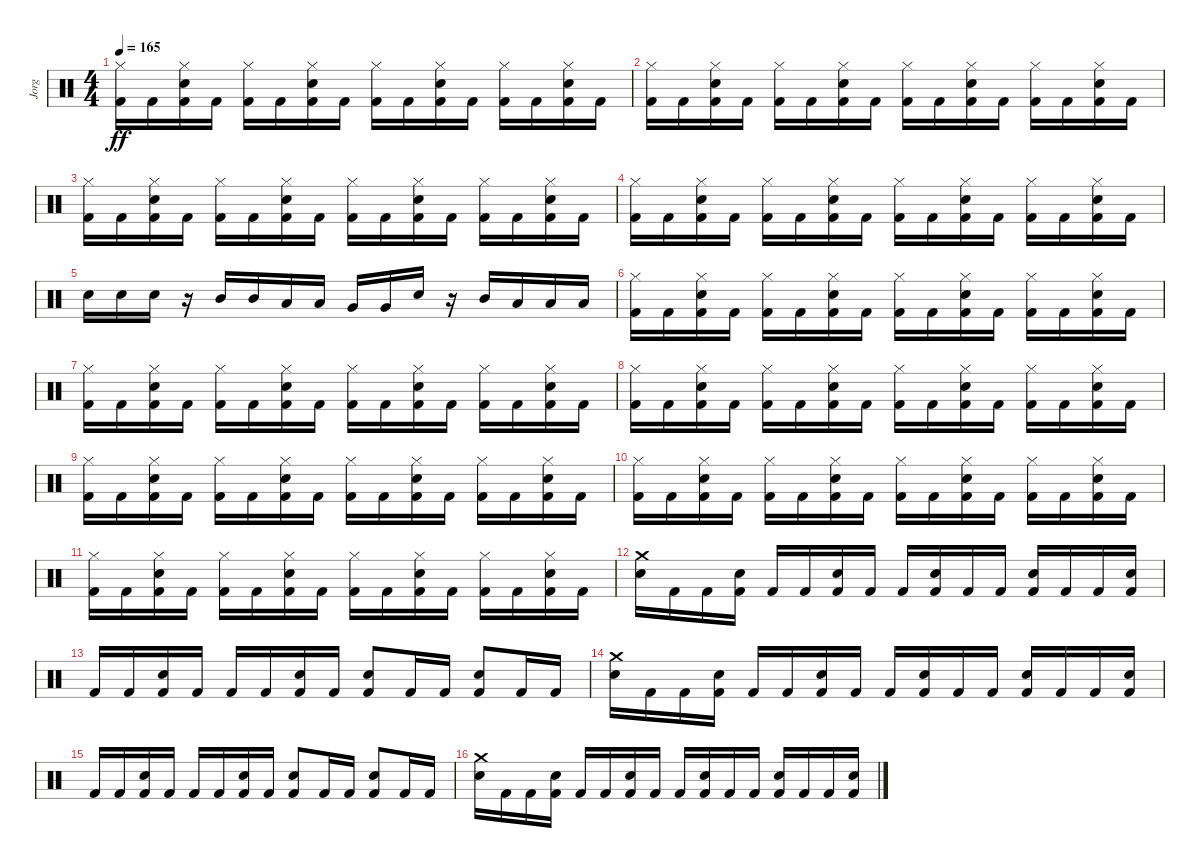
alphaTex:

\track ("Jorg" "Jorg") {instrument percussion}
\staff {score}
\articulation defaults
\ts (4 4)
\tempo 165
\clef neutral
\ks c
("Hi-Hat (closed)" "Kick (hit) 2").16{dy ff} "Kick (hit) 2".16 ("Hi-Hat (closed)" "Electric Snare (hit)" "Kick (hit) 2").16 "Kick (hit) 2".16 ("Hi-Hat (closed)" "Kick (hit) 2").16 "Kick (hit) 2".16 ("Hi-Hat (closed)" "Electric Snare (hit)" "Kick (hit) 2").16 "Kick (hit) 2".16 ("Hi-Hat (closed)" "Kick (hit) 2").16 "Kick (hit) 2".16 ("Hi-Hat (closed)" "Electric Snare (hit)" "Kick (hit) 2").16 "Kick (hit) 2".16 ("Hi-Hat (closed)" "Kick (hit) 2").16 "Kick (hit) 2".16 ("Hi-Hat (closed)" "Electric Snare (hit)" "Kick (hit) 2").16 "Kick (hit) 2".16 |
("Hi-Hat (closed)" "Kick (hit) 2").16 "Kick (hit) 2".16 ("Hi-Hat (closed)" "Electric Snare (hit)" "Kick (hit) 2").16 "Kick (hit) 2".16 ("Hi-Hat (closed)" "Kick (hit) 2").16 "Kick (hit) 2".16 ("Hi-Hat (closed)" "Electric Snare (hit)" "Kick (hit) 2").16 "Kick (hit) 2".16 ("Hi-Hat (closed)" "Kick (hit) 2").16 "Kick (hit) 2".16 ("Hi-Hat (closed)" "Electric Snare (hit)" "Kick (hit) 2").16 "Kick (hit) 2".16 ("Hi-Hat (closed)" "Kick (hit) 2").16 "Kick (hit) 2".16 ("Hi-Hat (closed)" "Electric Snare (hit)" "Kick (hit) 2").16 "Kick (hit) 2".16 |
("Hi-Hat (closed)" "Kick (hit) 2").16 "Kick (hit) 2".16 ("Hi-Hat (closed)" "Electric Snare (hit)" "Kick (hit) 2").16 "Kick (hit) 2".16 ("Hi-Hat (closed)" "Kick (hit) 2").16 "Kick (hit) 2".16 ("Hi-Hat (closed)" "Electric Snare (hit)" "Kick (hit) 2").16 "Kick (hit) 2".16 ("Hi-Hat (closed)" "Kick (hit) 2").16 "Kick (hit) 2".16 ("Hi-Hat (closed)" "Electric Snare (hit)" "Kick (hit) 2").16 "Kick (hit) 2".16 ("Hi-Hat (closed)" "Kick (hit) 2").16 "Kick (hit) 2".16 ("Hi-Hat (closed)" "Electric Snare (hit)" "Kick (hit) 2").16 "Kick (hit) 2".16 |
("Hi-Hat (closed)" "Kick (hit) 2").16 "Kick (hit) 2".16 ("Hi-Hat (closed)" "Electric Snare (hit)" "Kick (hit) 2").16 "Kick (hit) 2".16 ("Hi-Hat (closed)" "Kick (hit) 2").16 "Kick (hit) 2".16 ("Hi-Hat (closed)" "Electric Snare (hit)" "Kick (hit) 2").16 "Kick (hit) 2".16 ("Hi-Hat (closed)" "Kick (hit) 2").16 "Kick (hit) 2".16 ("Hi-Hat (closed)" "Electric Snare (hit)" "Kick (hit) 2").16 "Kick (hit) 2".16 ("Hi-Hat (closed)" "Kick (hit) 2").16 "Kick (hit) 2".16 ("Hi-Hat (closed)" "Electric Snare (hit)" "Kick (hit) 2").16 "Kick (hit) 2".16 |
"Electric Snare (hit)".16 "Electric Snare (hit)".16 "Electric Snare (hit)".16 r.16 "Mid Tom (hit)".16 "Mid Tom (hit)".16 "Low Tom (hit)".16 "Low Tom (hit)".16 "Very Low Tom (hit)".16 "Very Low Tom (hit)".16 "Electric Snare (hit)".16 r.16 "Mid Tom (hit)".16 "Low Tom (hit)".16 "Low Tom (hit)".16 "Low Tom (hit)".16 |
("Hi-Hat (closed)" "Kick (hit) 2").16 "Kick (hit) 2".16 ("Hi-Hat (closed)" "Electric Snare (hit)" "Kick (hit) 2").16 "Kick (hit) 2".16 ("Hi-Hat (closed)" "Kick (hit) 2").16 "Kick (hit) 2".16 ("Hi-Hat (closed)" "Electric Snare (hit)" "Kick (hit) 2").16 "Kick (hit) 2".16 ("Hi-Hat (closed)" "Kick (hit) 2").16 "Kick (hit) 2".16 ("Hi-Hat (closed)" "Electric Snare (hit)" "Kick (hit) 2").16 "Kick (hit) 2".16 ("Hi-Hat (closed)" "Kick (hit) 2").16 "Kick (hit) 2".16 ("Hi-Hat (closed)" "Electric Snare (hit)" "Kick (hit) 2").16 "Kick (hit) 2".16 |
("Hi-Hat (closed)" "Kick (hit) 2").16 "Kick (hit) 2".16 ("Hi-Hat (closed)" "Electric Snare (hit)" "Kick (hit) 2").16 "Kick (hit) 2".16 ("Hi-Hat (closed)" "Kick (hit) 2").16 "Kick (hit) 2".16 ("Hi-Hat (closed)" "Electric Snare (hit)" "Kick (hit) 2").16 "Kick (hit) 2".16 ("Hi-Hat (closed)" "Kick (hit) 2").16 "Kick (hit) 2".16 ("Hi-Hat (closed)" "Electric Snare (hit)" "Kick (hit) 2").16 "Kick (hit) 2".16 ("Hi-Hat (closed)" "Kick (hit) 2").16 "Kick (hit) 2".16 ("Hi-Hat (closed)" "Electric Snare (hit)" "Kick (hit) 2").16 "Kick (hit) 2".16 |
("Hi-Hat (closed)" "Kick (hit) 2").16 "Kick (hit) 2".16 ("Hi-Hat (closed)" "Electric Snare (hit)" "Kick (hit) 2").16 "Kick (hit) 2".16 ("Hi-Hat (closed)" "Kick (hit) 2").16 "Kick (hit) 2".16 ("Hi-Hat (closed)" "Electric Snare (hit)" "Kick (hit) 2").16 "Kick (hit) 2".16 ("Hi-Hat (closed)" "Kick (hit) 2").16 "Kick (hit) 2".16 ("Hi-Hat (closed)" "Electric Snare (hit)" "Kick (hit) 2").16 "Kick (hit) 2".16 ("Hi-Hat (closed)" "Kick (hit) 2").16 "Kick (hit) 2".16 ("Hi-Hat (closed)" "Electric Snare (hit)" "Kick (hit) 2").16 "Kick (hit) 2".16 |
("Hi-Hat (closed)" "Kick (hit) 2").16 "Kick (hit) 2".16 ("Hi-Hat (closed)" "Electric Snare (hit)" "Kick (hit) 2").16 "Kick (hit) 2".16 ("Hi-Hat (closed)" "Kick (hit) 2").16 "Kick (hit) 2".16 ("Hi-Hat (closed)" "Electric Snare (hit)" "Kick (hit) 2").16 "Kick (hit) 2".16 ("Hi-Hat (closed)" "Kick (hit) 2").16 "Kick (hit) 2".16 ("Hi-Hat (closed)" "Electric Snare (hit)" "Kick (hit) 2").16 "Kick (hit) 2".16 ("Hi-Hat (closed)" "Kick (hit) 2").16 "Kick (hit) 2".16 ("Hi-Hat (closed)" "Electric Snare (hit)" "Kick (hit) 2").16 "Kick (hit) 2".16 |
("Hi-Hat (closed)" "Kick (hit) 2").16 "Kick (hit) 2".16 ("Hi-Hat (closed)" "Electric Snare (hit)" "Kick (hit) 2").16 "Kick (hit) 2".16 ("Hi-Hat (closed)" "Kick (hit) 2").16 "Kick (hit) 2".16 ("Hi-Hat (closed)" "Electric Snare (hit)" "Kick (hit) 2").16 "Kick (hit) 2".16 ("Hi-Hat (closed)" "Kick (hit) 2").16 "Kick (hit) 2".16 ("Hi-Hat (closed)" "Electric Snare (hit)" "Kick (hit) 2").16 "Kick (hit) 2".16 ("Hi-Hat (closed)" "Kick (hit) 2").16 "Kick (hit) 2".16 ("Hi-Hat (closed)" "Electric Snare (hit)" "Kick (hit) 2").16 "Kick (hit) 2".16 |
("Hi-Hat (closed)" "Kick (hit) 2").16 "Kick (hit) 2".16 ("Hi-Hat (closed)" "Electric Snare (hit)" "Kick (hit) 2").16 "Kick (hit) 2".16 ("Hi-Hat (closed)" "Kick (hit) 2").16 "Kick (hit) 2".16 ("Hi-Hat (closed)" "Electric Snare (hit)" "Kick (hit) 2").16 "Kick (hit) 2".16 ("Hi-Hat (closed)" "Kick (hit) 2").16 "Kick (hit) 2".16 ("Hi-Hat (closed)" "Electric Snare (hit)" "Kick (hit) 2").16 "Kick (hit) 2".16 ("Hi-Hat (closed)" "Kick (hit) 2").16 "Kick (hit) 2".16 ("Hi-Hat (closed)" "Electric Snare (hit)" "Kick (hit) 2").16 "Kick (hit) 2".16 |
("Crash medium (hit)" "Electric Snare (hit)").16 "Kick (hit) 2".16 "Kick (hit) 2".16 ("Electric Snare (hit)" "Kick (hit) 2").16 "Kick (hit) 2".16 "Kick (hit) 2".16 ("Electric Snare (hit)" "Kick (hit) 2").16 "Kick (hit) 2".16 "Kick (hit) 2".16 ("Electric Snare (hit)" "Kick (hit) 2").16 "Kick (hit) 2".16 "Kick (hit) 2".16 ("Electric Snare (hit)" "Kick (hit) 2").16 "Kick (hit) 2".16 "Kick (hit) 2".16 ("Electric Snare (hit)" "Kick (hit) 2").16 |
"Kick (hit) 2".16 "Kick (hit) 2".16 ("Electric Snare (hit)" "Kick (hit) 2").16 "Kick (hit) 2".16 "Kick (hit) 2".16 "Kick (hit) 2".16 ("Electric Snare (hit)" "Kick (hit) 2").16 "Kick (hit) 2".16 ("Electric Snare (hit)" "Kick (hit) 2").8 "Kick (hit) 2".16 "Kick (hit) 2".16 ("Electric Snare (hit)" "Kick (hit) 2").8 "Kick (hit) 2".16 "Kick (hit) 2".16 |
("Crash medium (hit)" "Electric Snare (hit)").16 "Kick (hit) 2".16 "Kick (hit) 2".16 ("Electric Snare (hit)" "Kick (hit) 2").16 "Kick (hit) 2".16 "Kick (hit) 2".16 ("Electric Snare (hit)" "Kick (hit) 2").16 "Kick (hit) 2".16 "Kick (hit) 2".16 ("Electric Snare (hit)" "Kick (hit) 2").16 "Kick (hit) 2".16 "Kick (hit) 2".16 ("Electric Snare (hit)" "Kick (hit) 2").16 "Kick (hit) 2".16 "Kick (hit) 2".16 ("Electric Snare (hit)" "Kick (hit) 2").16 |
"Kick (hit) 2".16 "Kick (hit) 2".16 ("Electric Snare (hit)" "Kick (hit) 2").16 "Kick (hit) 2".16 "Kick (hit) 2".16 "Kick (hit) 2".16 ("Electric Snare (hit)" "Kick (hit) 2").16 "Kick (hit) 2".16 ("Electric Snare (hit)" "Kick (hit) 2").8 "Kick (hit) 2".16 "Kick (hit) 2".16 ("Electric Snare (hit)" "Kick (hit) 2").8 "Kick (hit) 2".16 "Kick (hit) 2".16 |
("Crash medium (hit)" "Electric Snare (hit)").16 "Kick (hit) 2".16 "Kick (hit) 2".16 ("Electric Snare (hit)" "Kick (hit) 2").16 "Kick (hit) 2".16 "Kick (hit) 2".16 ("Electric Snare (hit)" "Kick (hit) 2").16 "Kick (hit) 2".16 "Kick (hit) 2".16 ("Electric Snare (hit)" "Kick (hit) 2").16 "Kick (hit) 2".16 "Kick (hit) 2".16 ("Electric Snare (hit)" "Kick (hit) 2").16 "Kick (hit) 2".16 "Kick (hit) 2".16 ("Electric Snare (hit)" "Kick (hit) 2").16
